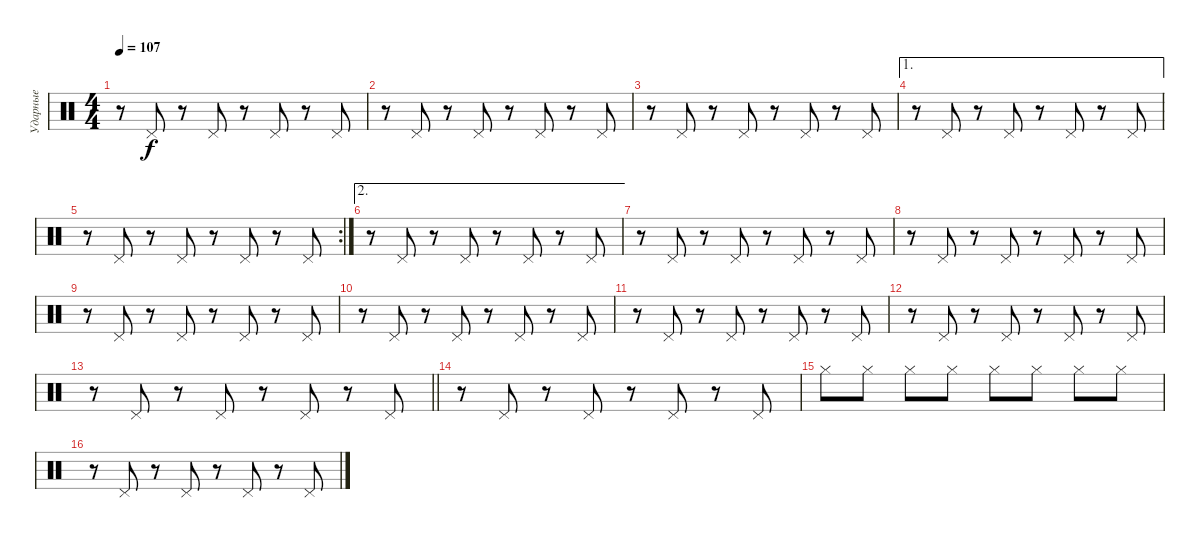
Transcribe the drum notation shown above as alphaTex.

\track ("Ударные" "Ударные") {instrument percussion}
\staff {score}
\articulation defaults
\ts (4 4)
\tempo 107
\clef neutral
\ks c
r.8{dy f} "Pedal Hi-Hat (hit)".8 r.8 "Pedal Hi-Hat (hit)".8 r.8 "Pedal Hi-Hat (hit)".8 r.8 "Pedal Hi-Hat (hit)".8 |
r.8 "Pedal Hi-Hat (hit)".8 r.8 "Pedal Hi-Hat (hit)".8 r.8 "Pedal Hi-Hat (hit)".8 r.8 "Pedal Hi-Hat (hit)".8 |
r.8 "Pedal Hi-Hat (hit)".8 r.8 "Pedal Hi-Hat (hit)".8 r.8 "Pedal Hi-Hat (hit)".8 r.8 "Pedal Hi-Hat (hit)".8 |
\ae 1
r.8 "Pedal Hi-Hat (hit)".8 r.8 "Pedal Hi-Hat (hit)".8 r.8 "Pedal Hi-Hat (hit)".8 r.8 "Pedal Hi-Hat (hit)".8 |
\rc 2
r.8 "Pedal Hi-Hat (hit)".8 r.8 "Pedal Hi-Hat (hit)".8 r.8 "Pedal Hi-Hat (hit)".8 r.8 "Pedal Hi-Hat (hit)".8 |
\ae 2
r.8 "Pedal Hi-Hat (hit)".8 r.8 "Pedal Hi-Hat (hit)".8 r.8 "Pedal Hi-Hat (hit)".8 r.8 "Pedal Hi-Hat (hit)".8 |
r.8 "Pedal Hi-Hat (hit)".8 r.8 "Pedal Hi-Hat (hit)".8 r.8 "Pedal Hi-Hat (hit)".8 r.8 "Pedal Hi-Hat (hit)".8 |
r.8 "Pedal Hi-Hat (hit)".8 r.8 "Pedal Hi-Hat (hit)".8 r.8 "Pedal Hi-Hat (hit)".8 r.8 "Pedal Hi-Hat (hit)".8 |
r.8 "Pedal Hi-Hat (hit)".8 r.8 "Pedal Hi-Hat (hit)".8 r.8 "Pedal Hi-Hat (hit)".8 r.8 "Pedal Hi-Hat (hit)".8 |
r.8 "Pedal Hi-Hat (hit)".8 r.8 "Pedal Hi-Hat (hit)".8 r.8 "Pedal Hi-Hat (hit)".8 r.8 "Pedal Hi-Hat (hit)".8 |
r.8 "Pedal Hi-Hat (hit)".8 r.8 "Pedal Hi-Hat (hit)".8 r.8 "Pedal Hi-Hat (hit)".8 r.8 "Pedal Hi-Hat (hit)".8 |
r.8 "Pedal Hi-Hat (hit)".8 r.8 "Pedal Hi-Hat (hit)".8 r.8 "Pedal Hi-Hat (hit)".8 r.8 "Pedal Hi-Hat (hit)".8 |
\barLineRight lightlight
r.8 "Pedal Hi-Hat (hit)".8 r.8 "Pedal Hi-Hat (hit)".8 r.8 "Pedal Hi-Hat (hit)".8 r.8 "Pedal Hi-Hat (hit)".8 |
r.8 "Pedal Hi-Hat (hit)".8 r.8 "Pedal Hi-Hat (hit)".8 r.8 "Pedal Hi-Hat (hit)".8 r.8 "Pedal Hi-Hat (hit)".8 |
"Hi-Hat (closed)".8 "Hi-Hat (closed)".8 "Hi-Hat (closed)".8 "Hi-Hat (closed)".8 "Hi-Hat (closed)".8 "Hi-Hat (closed)".8 "Hi-Hat (closed)".8 "Hi-Hat (closed)".8 |
r.8 "Pedal Hi-Hat (hit)".8 r.8 "Pedal Hi-Hat (hit)".8 r.8 "Pedal Hi-Hat (hit)".8 r.8 "Pedal Hi-Hat (hit)".8
